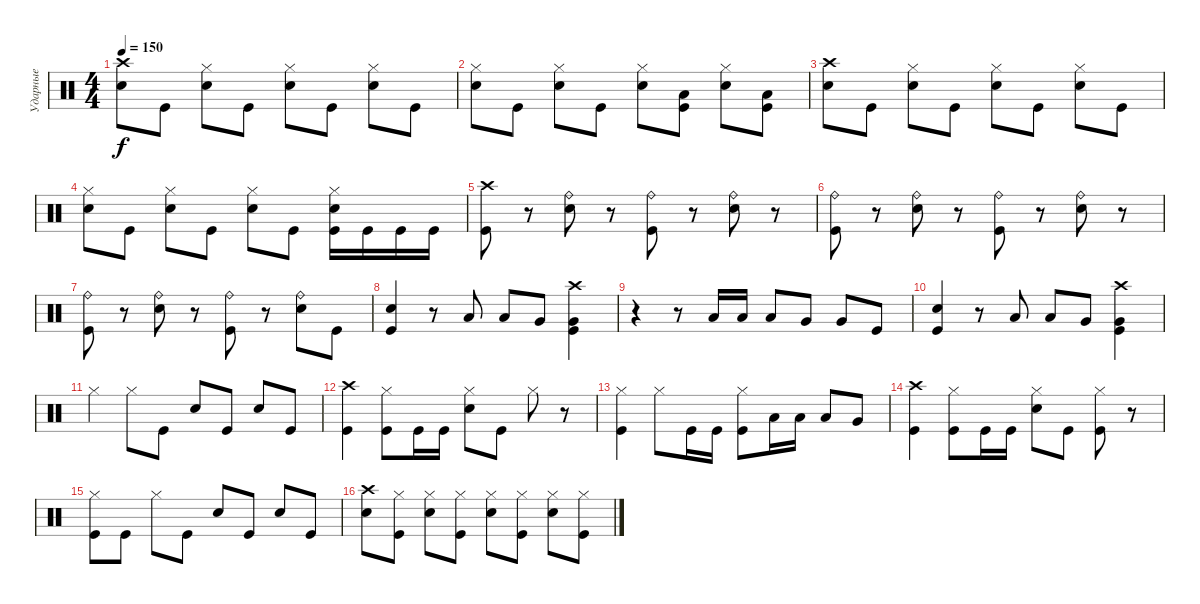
\track ("Ударные" "Ударные") {instrument percussion}
\staff {score}
\articulation defaults
\ts (4 4)
\tempo 150
\clef neutral
\ks c
("Crash high (hit)" "Electric Snare (hit)").8{dy f} "Kick (hit)".8 ("Hi-Hat (closed)" "Electric Snare (hit)").8 "Kick (hit)".8 ("Hi-Hat (closed)" "Electric Snare (hit)").8 "Kick (hit)".8 ("Hi-Hat (closed)" "Electric Snare (hit)").8 "Kick (hit)".8 |
("Hi-Hat (closed)" "Electric Snare (hit)").8 "Kick (hit)".8 ("Hi-Hat (closed)" "Electric Snare (hit)").8 "Kick (hit)".8 ("Hi-Hat (closed)" "Electric Snare (hit)").8 ("Low Tom (hit)" "Kick (hit)").8 ("Hi-Hat (closed)" "Electric Snare (hit)").8 ("Low Tom (hit)" "Kick (hit)").8 |
("Crash high (hit)" "Electric Snare (hit)").8 "Kick (hit)".8 ("Hi-Hat (closed)" "Electric Snare (hit)").8 "Kick (hit)".8 ("Hi-Hat (closed)" "Electric Snare (hit)").8 "Kick (hit)".8 ("Hi-Hat (closed)" "Electric Snare (hit)").8 "Kick (hit)".8 |
("Hi-Hat (closed)" "Electric Snare (hit)").8 "Kick (hit)".8 ("Hi-Hat (closed)" "Electric Snare (hit)").8 "Kick (hit)".8 ("Hi-Hat (closed)" "Electric Snare (hit)").8 "Kick (hit)".8 ("Hi-Hat (closed)" "Electric Snare (hit)" "Kick (hit)").16 "Kick (hit)".16 "Kick (hit)".16 "Kick (hit)".16 |
("Crash high (hit)" "Kick (hit)").8 r.8 ("Ride (bell)" "Electric Snare (hit)").8 r.8 ("Ride (bell)" "Kick (hit)").8 r.8 ("Ride (bell)" "Electric Snare (hit)").8 r.8 |
("Ride (bell)" "Kick (hit)").8 r.8 ("Ride (bell)" "Electric Snare (hit)").8 r.8 ("Ride (bell)" "Kick (hit)").8 r.8 ("Ride (bell)" "Electric Snare (hit)").8 r.8 |
("Ride (bell)" "Kick (hit)").8 r.8 ("Ride (bell)" "Electric Snare (hit)").8 r.8 ("Ride (bell)" "Kick (hit)").8 r.8 ("Ride (bell)" "Electric Snare (hit)").8 "Kick (hit)".8 |
("Electric Snare (hit)" "Kick (hit)").4 r.8 "Low Tom (hit)".8 "Low Tom (hit)".8 "Very Low Tom (hit)".8 ("Crash high (hit)" "Very Low Tom (hit)" "Kick (hit)").4 |
r.4 r.8 "Low Tom (hit)".16 "Low Tom (hit)".16 "Low Tom (hit)".8 "Very Low Tom (hit)".8 "Very Low Tom (hit)".8 "Kick (hit)".8 |
("Electric Snare (hit)" "Kick (hit)").4 r.8 "Low Tom (hit)".8 "Low Tom (hit)".8 "Very Low Tom (hit)".8 ("Crash high (hit)" "Very Low Tom (hit)" "Kick (hit)").4 |
"Hi-Hat (closed)".4 "Hi-Hat (closed)".8 "Kick (hit)".8 "Electric Snare (hit)".8 "Kick (hit)".8 "Electric Snare (hit)".8 "Kick (hit)".8 |
("Crash high (hit)" "Kick (hit)").4 ("Hi-Hat (closed)" "Kick (hit)").8 "Kick (hit)".16 "Kick (hit)".16 ("Hi-Hat (closed)" "Electric Snare (hit)").8 "Kick (hit)".8 "Hi-Hat (closed)".8 r.8 |
("Hi-Hat (closed)" "Kick (hit)").4 "Hi-Hat (closed)".8 "Kick (hit)".16 "Kick (hit)".16 ("Hi-Hat (closed)" "Kick (hit)").8 "Low Tom (hit)".16 "Low Tom (hit)".16 "Low Tom (hit)".8 "Very Low Tom (hit)".8 |
("Crash high (hit)" "Kick (hit)").4 ("Hi-Hat (closed)" "Kick (hit)").8 "Kick (hit)".16 "Kick (hit)".16 ("Hi-Hat (closed)" "Electric Snare (hit)").8 "Kick (hit)".8 ("Hi-Hat (closed)" "Kick (hit)").8 r.8 |
("Hi-Hat (closed)" "Kick (hit)").8 "Kick (hit)".8 "Hi-Hat (closed)".8 "Kick (hit)".8 "Electric Snare (hit)".8 "Kick (hit)".8 "Electric Snare (hit)".8 "Kick (hit)".8 |
("Crash high (hit)" "Electric Snare (hit)").8 ("Hi-Hat (closed)" "Kick (hit)").8 ("Hi-Hat (closed)" "Electric Snare (hit)").8 ("Hi-Hat (closed)" "Kick (hit)").8 ("Hi-Hat (closed)" "Electric Snare (hit)").8 ("Hi-Hat (closed)" "Kick (hit)").8 ("Hi-Hat (closed)" "Electric Snare (hit)").8 ("Hi-Hat (closed)" "Kick (hit)").8
